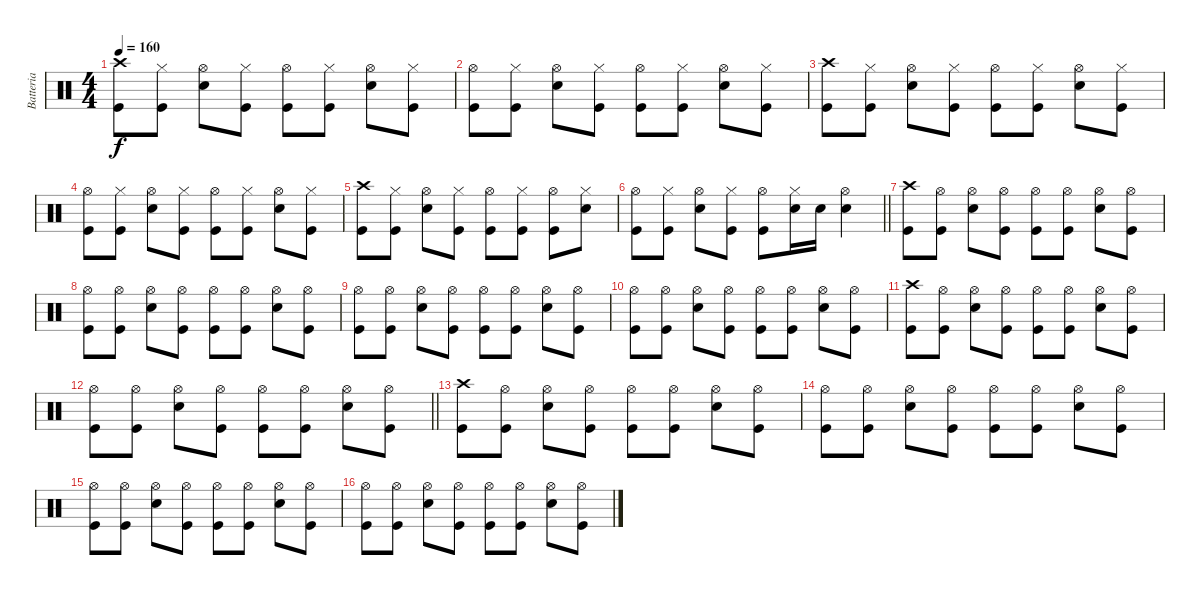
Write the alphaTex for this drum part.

\track ("Batteria" "Batteria") {instrument percussion}
\staff {score}
\articulation defaults
\ts (4 4)
\tempo 160
\clef neutral
\ks c
("Kick (hit)" "Crash high (hit)").8{dy f} ("Kick (hit)" "Hi-Hat (closed)").8 ("Snare (hit) 2" "Hi-Hat (open)").8 ("Kick (hit)" "Hi-Hat (closed)").8 ("Kick (hit)" "Hi-Hat (open)").8 ("Kick (hit)" "Hi-Hat (closed)").8 ("Snare (hit) 2" "Hi-Hat (open)").8 ("Kick (hit)" "Hi-Hat (closed)").8 |
("Kick (hit)" "Hi-Hat (open)").8 ("Kick (hit)" "Hi-Hat (closed)").8 ("Snare (hit) 2" "Hi-Hat (open)").8 ("Kick (hit)" "Hi-Hat (closed)").8 ("Kick (hit)" "Hi-Hat (open)").8 ("Kick (hit)" "Hi-Hat (closed)").8 ("Snare (hit) 2" "Hi-Hat (open)").8 ("Kick (hit)" "Hi-Hat (closed)").8 |
("Kick (hit)" "Crash high (hit)").8 ("Kick (hit)" "Hi-Hat (closed)").8 ("Snare (hit) 2" "Hi-Hat (open)").8 ("Kick (hit)" "Hi-Hat (closed)").8 ("Kick (hit)" "Hi-Hat (open)").8 ("Kick (hit)" "Hi-Hat (closed)").8 ("Snare (hit) 2" "Hi-Hat (open)").8 ("Kick (hit)" "Hi-Hat (closed)").8 |
("Kick (hit)" "Hi-Hat (open)").8 ("Kick (hit)" "Hi-Hat (closed)").8 ("Snare (hit) 2" "Hi-Hat (open)").8 ("Kick (hit)" "Hi-Hat (closed)").8 ("Kick (hit)" "Hi-Hat (open)").8 ("Kick (hit)" "Hi-Hat (closed)").8 ("Snare (hit) 2" "Hi-Hat (open)").8 ("Kick (hit)" "Hi-Hat (closed)").8 |
("Kick (hit)" "Crash high (hit)").8 ("Kick (hit)" "Hi-Hat (closed)").8 ("Snare (hit) 2" "Hi-Hat (open)").8 ("Kick (hit)" "Hi-Hat (closed)").8 ("Kick (hit)" "Hi-Hat (open)").8 ("Kick (hit)" "Hi-Hat (closed)").8 ("Kick (hit)" "Hi-Hat (open)").8 ("Snare (hit) 2" "Hi-Hat (closed)").8 |
\barLineRight lightlight
("Kick (hit)" "Hi-Hat (open)").8 ("Kick (hit)" "Hi-Hat (closed)").8 ("Snare (hit) 2" "Hi-Hat (open)").8 ("Kick (hit)" "Hi-Hat (closed)").8 ("Kick (hit)" "Hi-Hat (open)").8 ("Snare (hit) 2" "Hi-Hat (closed)").16 "Snare (hit) 2".16 ("Snare (hit) 2" "Hi-Hat (open)").4 |
("Kick (hit)" "Crash high (hit)").8 ("Kick (hit)" "Hi-Hat (open)").8 ("Snare (hit) 2" "Hi-Hat (open)").8 ("Kick (hit)" "Hi-Hat (open)").8 ("Kick (hit)" "Hi-Hat (open)").8 ("Kick (hit)" "Hi-Hat (open)").8 ("Snare (hit) 2" "Hi-Hat (open)").8 ("Kick (hit)" "Hi-Hat (open)").8 |
("Kick (hit)" "Hi-Hat (open)").8 ("Kick (hit)" "Hi-Hat (open)").8 ("Snare (hit) 2" "Hi-Hat (open)").8 ("Kick (hit)" "Hi-Hat (open)").8 ("Kick (hit)" "Hi-Hat (open)").8 ("Kick (hit)" "Hi-Hat (open)").8 ("Snare (hit) 2" "Hi-Hat (open)").8 ("Kick (hit)" "Hi-Hat (open)").8 |
("Kick (hit)" "Hi-Hat (open)").8 ("Kick (hit)" "Hi-Hat (open)").8 ("Snare (hit) 2" "Hi-Hat (open)").8 ("Kick (hit)" "Hi-Hat (open)").8 ("Kick (hit)" "Hi-Hat (open)").8 ("Kick (hit)" "Hi-Hat (open)").8 ("Snare (hit) 2" "Hi-Hat (open)").8 ("Kick (hit)" "Hi-Hat (open)").8 |
("Kick (hit)" "Hi-Hat (open)").8 ("Kick (hit)" "Hi-Hat (open)").8 ("Snare (hit) 2" "Hi-Hat (open)").8 ("Kick (hit)" "Hi-Hat (open)").8 ("Kick (hit)" "Hi-Hat (open)").8 ("Kick (hit)" "Hi-Hat (open)").8 ("Snare (hit) 2" "Hi-Hat (open)").8 ("Kick (hit)" "Hi-Hat (open)").8 |
("Kick (hit)" "Crash high (hit)").8 ("Kick (hit)" "Hi-Hat (open)").8 ("Snare (hit) 2" "Hi-Hat (open)").8 ("Kick (hit)" "Hi-Hat (open)").8 ("Kick (hit)" "Hi-Hat (open)").8 ("Kick (hit)" "Hi-Hat (open)").8 ("Snare (hit) 2" "Hi-Hat (open)").8 ("Kick (hit)" "Hi-Hat (open)").8 |
\barLineRight lightlight
("Kick (hit)" "Hi-Hat (open)").8 ("Kick (hit)" "Hi-Hat (open)").8 ("Snare (hit) 2" "Hi-Hat (open)").8 ("Kick (hit)" "Hi-Hat (open)").8 ("Kick (hit)" "Hi-Hat (open)").8 ("Kick (hit)" "Hi-Hat (open)").8 ("Snare (hit) 2" "Hi-Hat (open)").8 ("Kick (hit)" "Hi-Hat (open)").8 |
("Kick (hit)" "Crash high (hit)").8 ("Kick (hit)" "Hi-Hat (open)").8 ("Snare (hit) 2" "Hi-Hat (open)").8 ("Kick (hit)" "Hi-Hat (open)").8 ("Kick (hit)" "Hi-Hat (open)").8 ("Kick (hit)" "Hi-Hat (open)").8 ("Snare (hit) 2" "Hi-Hat (open)").8 ("Kick (hit)" "Hi-Hat (open)").8 |
("Kick (hit)" "Hi-Hat (open)").8 ("Kick (hit)" "Hi-Hat (open)").8 ("Snare (hit) 2" "Hi-Hat (open)").8 ("Kick (hit)" "Hi-Hat (open)").8 ("Kick (hit)" "Hi-Hat (open)").8 ("Kick (hit)" "Hi-Hat (open)").8 ("Snare (hit) 2" "Hi-Hat (open)").8 ("Kick (hit)" "Hi-Hat (open)").8 |
("Kick (hit)" "Hi-Hat (open)").8 ("Kick (hit)" "Hi-Hat (open)").8 ("Snare (hit) 2" "Hi-Hat (open)").8 ("Kick (hit)" "Hi-Hat (open)").8 ("Kick (hit)" "Hi-Hat (open)").8 ("Kick (hit)" "Hi-Hat (open)").8 ("Snare (hit) 2" "Hi-Hat (open)").8 ("Kick (hit)" "Hi-Hat (open)").8 |
("Kick (hit)" "Hi-Hat (open)").8 ("Kick (hit)" "Hi-Hat (open)").8 ("Snare (hit) 2" "Hi-Hat (open)").8 ("Kick (hit)" "Hi-Hat (open)").8 ("Kick (hit)" "Hi-Hat (open)").8 ("Kick (hit)" "Hi-Hat (open)").8 ("Snare (hit) 2" "Hi-Hat (open)").8 ("Kick (hit)" "Hi-Hat (open)").8
